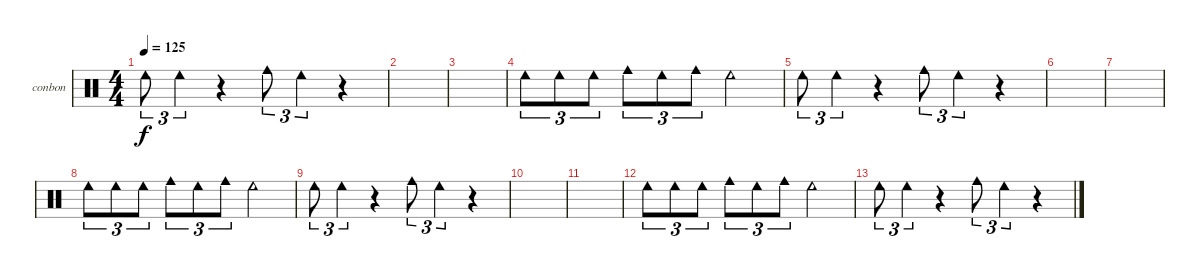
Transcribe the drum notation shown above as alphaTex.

\defaultSystemsLayout 4
\bracketExtendMode groupsimilarinstruments
\firstSystemTrackNameOrientation horizontal
\otherSystemsTrackNameOrientation horizontal
\track ("Bongos N Congas" "conbon") {instrument percussion}
\staff {score}
\articulation defaults
\ts (4 4)
\tempo 125
\clef neutral
\scale
0.333333
\ks c "Cowbell low (hit)".8{tu (3 2) dy f} "Cowbell low (hit)".4{tu (3 2)}
r.4 "Cowbell medium (hit)".8{tu (3 2)} "Cowbell low (hit)".4{tu (3 2)} r.4 |
\scale
0.333333 |
\scale
0.333333 |
\scale
0.333333 "Cowbell low (hit)".8{tu (3 2)} "Cowbell low (hit)".8{tu (3 2)} "Cowbell low (hit)".8{tu (3 2)} "Cowbell medium (hit)".8{tu (3 2)} "Cowbell low (hit)".8{tu (3 2)} "Cowbell medium (hit)".8{tu (3 2)} "Cowbell low (hit)".2 |
\scale
0.333333 "Cowbell low (hit)".8{tu (3 2)} "Cowbell low (hit)".4{tu (3 2)} r.4 "Cowbell medium (hit)".8{tu (3 2)} "Cowbell low (hit)".4{tu (3 2)} r.4 |
\scale
0.333333 |
\scale
0.333333 |
\scale
0.333333 "Cowbell low (hit)".8{tu (3 2)} "Cowbell low (hit)".8{tu (3 2)} "Cowbell low (hit)".8{tu (3 2)} "Cowbell medium (hit)".8{tu (3 2)} "Cowbell low (hit)".8{tu (3 2)} "Cowbell medium (hit)".8{tu (3 2)} "Cowbell low (hit)".2 |
\scale
0.333333 "Cowbell low (hit)".8{tu (3 2)} "Cowbell low (hit)".4{tu (3 2)} r.4 "Cowbell medium (hit)".8{tu (3 2)} "Cowbell low (hit)".4{tu (3 2)} r.4 |
\scale
0.333333 |
\scale
0.333333 |
\scale
0.333333 "Cowbell low (hit)".8{tu (3 2)} "Cowbell low (hit)".8{tu (3 2)} "Cowbell low (hit)".8{tu (3 2)} "Cowbell medium (hit)".8{tu (3 2)} "Cowbell low (hit)".8{tu (3 2)} "Cowbell medium (hit)".8{tu (3 2)} "Cowbell low (hit)".2 |
\scale
0.333333 "Cowbell low (hit)".8{tu (3 2)} "Cowbell low (hit)".4{tu (3 2)} r.4 "Cowbell medium (hit)".8{tu (3 2)} "Cowbell low (hit)".4{tu (3 2)} r.4 |
\scale
0.333333 |
\scale
0.333333 |
\scale
0.333333
